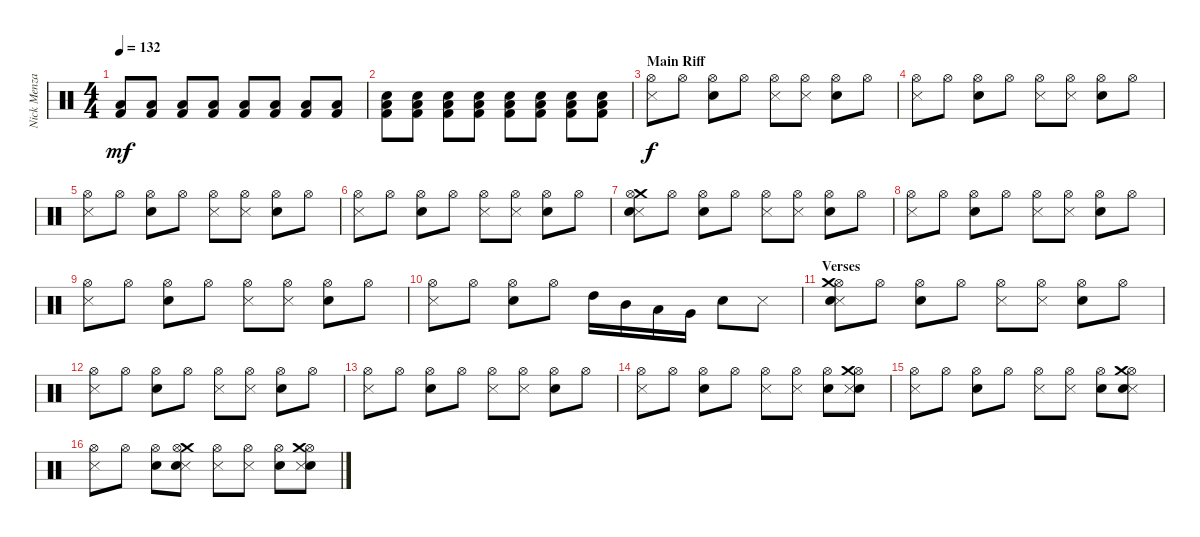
\track ("Nick Menza (Drums)" "Nick Menza") {instrument percussion}
\staff {score}
\articulation defaults
\ts (4 4)
\tempo 132
\clef neutral
\ks c
("Low Floor Tom (hit)" "Kick (hit) 2").8{dy mf} ("Low Floor Tom (hit)" "Kick (hit) 2").8 ("Low Floor Tom (hit)" "Kick (hit) 2").8 ("Low Floor Tom (hit)" "Kick (hit) 2").8 ("Low Floor Tom (hit)" "Kick (hit) 2").8 ("Kick (hit) 2" "Low Floor Tom (hit)").8 ("Low Floor Tom (hit)" "Kick (hit) 2").8 ("Low Floor Tom (hit)" "Kick (hit) 2").8 |
("Snare (hit) 2" "Low Floor Tom (hit)" "Kick (hit) 2").8 ("Low Floor Tom (hit)" "Kick (hit) 2" "Snare (hit) 2").8 ("Low Floor Tom (hit)" "Kick (hit) 2" "Snare (hit) 2").8 ("Snare (hit) 2" "Low Floor Tom (hit)" "Kick (hit) 2").8 ("Snare (hit) 2" "Low Floor Tom (hit)" "Kick (hit) 2").8 ("Snare (hit) 2" "Kick (hit) 2" "Low Floor Tom (hit)").8 ("Snare (hit) 2" "Low Floor Tom (hit)" "Kick (hit) 2").8 ("Kick (hit) 2" "Low Floor Tom (hit)" "Snare (hit) 2").8 |
\section ("" "Main Riff")
("Metronome (hit)" "Hi-Hat (open)").8{dy f} "Hi-Hat (open)".8 ("Hi-Hat (open)" "Electric Snare (hit)").8 "Hi-Hat (open)".8 ("Metronome (hit)" "Hi-Hat (open)").8 ("Metronome (hit)" "Hi-Hat (open)").8 ("Electric Snare (hit)" "Hi-Hat (open)").8 "Hi-Hat (open)".8 |
("Metronome (hit)" "Hi-Hat (open)").8 "Hi-Hat (open)".8 ("Hi-Hat (open)" "Electric Snare (hit)").8 "Hi-Hat (open)".8 ("Metronome (hit)" "Hi-Hat (open)").8 ("Metronome (hit)" "Hi-Hat (open)").8 ("Electric Snare (hit)" "Hi-Hat (open)").8 "Hi-Hat (open)".8 |
("Hi-Hat (open)" "Metronome (hit)").8 "Hi-Hat (open)".8 ("Electric Snare (hit)" "Hi-Hat (open)").8 "Hi-Hat (open)".8 ("Hi-Hat (open)" "Metronome (hit)").8 ("Hi-Hat (open)" "Metronome (hit)").8 ("Hi-Hat (open)" "Electric Snare (hit)").8 "Hi-Hat (open)".8 |
("Hi-Hat (open)" "Metronome (hit)").8 "Hi-Hat (open)".8 ("Hi-Hat (open)" "Electric Snare (hit)").8 "Hi-Hat (open)".8 ("Metronome (hit)" "Hi-Hat (open)").8 ("Metronome (hit)" "Hi-Hat (open)").8 ("Electric Snare (hit)" "Hi-Hat (open)").8 "Hi-Hat (open)".8 |
("Crash medium (hit)" "Metronome (hit)" "Electric Snare (hit)" "Hi-Hat (open)").8 "Hi-Hat (open)".8 ("Hi-Hat (open)" "Electric Snare (hit)").8 "Hi-Hat (open)".8 ("Hi-Hat (open)" "Metronome (hit)").8 ("Hi-Hat (open)" "Metronome (hit)").8 ("Hi-Hat (open)" "Electric Snare (hit)").8 "Hi-Hat (open)".8 |
("Metronome (hit)" "Hi-Hat (open)").8 "Hi-Hat (open)".8 ("Electric Snare (hit)" "Hi-Hat (open)").8 "Hi-Hat (open)".8 ("Hi-Hat (open)" "Metronome (hit)").8 ("Hi-Hat (open)" "Metronome (hit)").8 ("Electric Snare (hit)" "Hi-Hat (open)").8 "Hi-Hat (open)".8 |
("Hi-Hat (open)" "Metronome (hit)").8 "Hi-Hat (open)".8 ("Electric Snare (hit)" "Hi-Hat (open)").8 "Hi-Hat (open)".8 ("Hi-Hat (open)" "Metronome (hit)").8 ("Metronome (hit)" "Hi-Hat (open)").8 ("Electric Snare (hit)" "Hi-Hat (open)").8 "Hi-Hat (open)".8 |
("Hi-Hat (open)" "Metronome (hit)").8 "Hi-Hat (open)".8 ("Hi-Hat (open)" "Electric Snare (hit)").8 "Hi-Hat (open)".8 "High Tom (hit)".16 "Mid Tom (hit)".16 "Low Tom (hit)".16 "Very Low Tom (hit)".16 "Electric Snare (hit)".8 "Metronome (hit)".8 |
\section ("" "Verses")
("Metronome (hit)" "Electric Snare (hit)" "Hi-Hat (open)" "Crash medium (hit)").8 "Hi-Hat (open)".8 ("Electric Snare (hit)" "Hi-Hat (open)").8 "Hi-Hat (open)".8 ("Hi-Hat (open)" "Metronome (hit)").8 ("Hi-Hat (open)" "Metronome (hit)").8 ("Hi-Hat (open)" "Electric Snare (hit)").8 "Hi-Hat (open)".8 |
("Hi-Hat (open)" "Metronome (hit)").8 "Hi-Hat (open)".8 ("Hi-Hat (open)" "Electric Snare (hit)").8 "Hi-Hat (open)".8 ("Hi-Hat (open)" "Metronome (hit)").8 ("Metronome (hit)" "Hi-Hat (open)").8 ("Hi-Hat (open)" "Electric Snare (hit)").8 "Hi-Hat (open)".8 |
("Hi-Hat (open)" "Metronome (hit)").8 "Hi-Hat (open)".8 ("Electric Snare (hit)" "Hi-Hat (open)").8 "Hi-Hat (open)".8 ("Hi-Hat (open)" "Metronome (hit)").8 ("Metronome (hit)" "Hi-Hat (open)").8 ("Hi-Hat (open)" "Electric Snare (hit)").8 "Hi-Hat (open)".8 |
("Metronome (hit)" "Hi-Hat (open)").8 "Hi-Hat (open)".8 ("Hi-Hat (open)" "Electric Snare (hit)").8 "Hi-Hat (open)".8 ("Metronome (hit)" "Hi-Hat (open)").8 ("Hi-Hat (open)" "Metronome (hit)").8 ("Electric Snare (hit)" "Hi-Hat (open)").8 ("Hi-Hat (open)" "Electric Snare (hit)" "Crash medium (hit)" "Metronome (hit)").8 |
("Metronome (hit)" "Hi-Hat (open)").8 "Hi-Hat (open)".8 ("Electric Snare (hit)" "Hi-Hat (open)").8 "Hi-Hat (open)".8 ("Hi-Hat (open)" "Metronome (hit)").8 ("Metronome (hit)" "Hi-Hat (open)").8 ("Hi-Hat (open)" "Electric Snare (hit)").8 ("Hi-Hat (open)" "Metronome (hit)" "Electric Snare (hit)" "Crash medium (hit)").8 |
("Hi-Hat (open)" "Metronome (hit)").8 "Hi-Hat (open)".8 ("Electric Snare (hit)" "Hi-Hat (open)").8 ("Metronome (hit)" "Crash medium (hit)" "Electric Snare (hit)" "Hi-Hat (open)").8 ("Hi-Hat (open)" "Metronome (hit)").8 ("Hi-Hat (open)" "Metronome (hit)").8 ("Hi-Hat (open)" "Electric Snare (hit)").8 ("Hi-Hat (open)" "Electric Snare (hit)" "Metronome (hit)" "Crash medium (hit)").8
